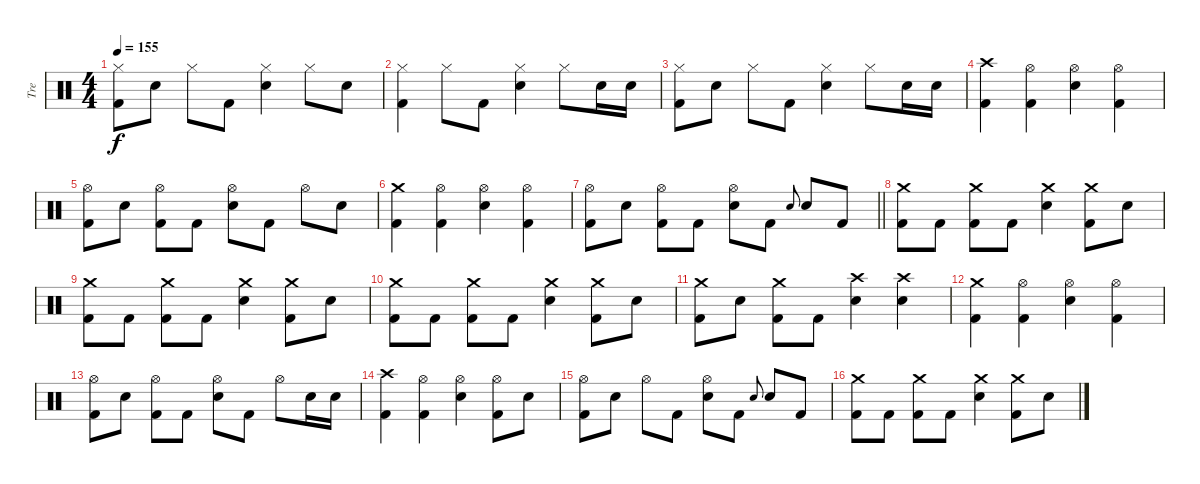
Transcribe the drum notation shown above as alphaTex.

\track ("Tre" "Tre") {instrument percussion}
\staff {score}
\articulation defaults
\ts (4 4)
\tempo 155
\clef neutral
\ks c
("Hi-Hat (closed)" "Kick (hit) 2").8{dy f} "Snare (hit) 2".8 "Hi-Hat (closed)".8 "Kick (hit) 2".8 ("Hi-Hat (closed)" "Snare (hit) 2").4 "Hi-Hat (closed)".8 "Snare (hit) 2".8 |
("Hi-Hat (closed)" "Kick (hit) 2").4 "Hi-Hat (closed)".8 "Kick (hit) 2".8 ("Hi-Hat (closed)" "Snare (hit) 2").4 "Hi-Hat (closed)".8 "Snare (hit) 2".16 "Snare (hit) 2".16 |
("Hi-Hat (closed)" "Kick (hit) 2").8 "Snare (hit) 2".8 "Hi-Hat (closed)".8 "Kick (hit) 2".8 ("Hi-Hat (closed)" "Snare (hit) 2").4 "Hi-Hat (closed)".8 "Snare (hit) 2".16 "Snare (hit) 2".16 |
("Crash high (hit)" "Kick (hit) 2").4 ("Hi-Hat (open)" "Kick (hit) 2").4 ("Hi-Hat (open)" "Snare (hit) 2").4 ("Hi-Hat (open)" "Kick (hit) 2").4 |
("Hi-Hat (open)" "Kick (hit) 2").8 "Snare (hit) 2".8 ("Hi-Hat (open)" "Kick (hit) 2").8 "Kick (hit) 2".8 ("Hi-Hat (open)" "Snare (hit) 2").8 "Kick (hit) 2".8 "Hi-Hat (open)".8 "Snare (hit) 2".8 |
("Crash medium (hit)" "Kick (hit) 2").4 ("Hi-Hat (open)" "Kick (hit) 2").4 ("Hi-Hat (open)" "Snare (hit) 2").4 ("Hi-Hat (open)" "Kick (hit) 2").4 |
\barLineRight lightlight
("Hi-Hat (open)" "Kick (hit) 2").8 "Snare (hit) 2".8 ("Hi-Hat (open)" "Kick (hit) 2").8 "Kick (hit) 2".8 ("Hi-Hat (open)" "Snare (hit) 2").8 "Kick (hit) 2".8 "Snare (hit) 2".8{gr onbeat} "Snare (hit) 2".8 "Kick (hit) 2".8 |
("Crash medium (hit)" "Kick (hit) 2").8 "Kick (hit) 2".8 ("Crash medium (hit)" "Kick (hit) 2").8 "Kick (hit) 2".8 ("Crash medium (hit)" "Snare (hit) 2").4 ("Crash medium (hit)" "Kick (hit) 2").8 "Snare (hit) 2".8 |
("Crash medium (hit)" "Kick (hit) 2").8 "Kick (hit) 2".8 ("Crash medium (hit)" "Kick (hit) 2").8 "Kick (hit) 2".8 ("Crash medium (hit)" "Snare (hit) 2").4 ("Crash medium (hit)" "Kick (hit) 2").8 "Snare (hit) 2".8 |
("Crash medium (hit)" "Kick (hit) 2").8 "Kick (hit) 2".8 ("Crash medium (hit)" "Kick (hit) 2").8 "Kick (hit) 2".8 ("Crash medium (hit)" "Snare (hit) 2").4 ("Crash medium (hit)" "Kick (hit) 2").8 "Snare (hit) 2".8 |
("Crash medium (hit)" "Kick (hit) 2").8 "Snare (hit) 2".8 ("Crash medium (hit)" "Kick (hit) 2").8 "Kick (hit) 2".8 ("Crash high (hit)" "Snare (hit) 2").4 ("Crash high (hit)" "Snare (hit) 2").4 |
("Crash medium (hit)" "Kick (hit) 2").4 ("Hi-Hat (open)" "Kick (hit) 2").4 ("Hi-Hat (open)" "Snare (hit) 2").4 ("Hi-Hat (open)" "Kick (hit) 2").4 |
("Hi-Hat (open)" "Kick (hit) 2").8 "Snare (hit) 2".8 ("Hi-Hat (open)" "Kick (hit) 2").8 "Kick (hit) 2".8 ("Hi-Hat (open)" "Snare (hit) 2").8 "Kick (hit) 2".8 "Hi-Hat (open)".8 "Snare (hit) 2".16 "Snare (hit) 2".16 |
("Crash high (hit)" "Kick (hit) 2").4 ("Hi-Hat (open)" "Kick (hit) 2").4 ("Hi-Hat (open)" "Snare (hit) 2").4 ("Hi-Hat (open)" "Kick (hit) 2").8 "Snare (hit) 2".8 |
("Hi-Hat (open)" "Kick (hit) 2").8 "Snare (hit) 2".8 "Hi-Hat (open)".8 "Kick (hit) 2".8 ("Hi-Hat (open)" "Snare (hit) 2").8 "Kick (hit) 2".8 "Snare (hit) 2".8{gr onbeat} "Snare (hit) 2".8 "Kick (hit) 2".8 |
("Crash medium (hit)" "Kick (hit) 2").8 "Kick (hit) 2".8 ("Crash medium (hit)" "Kick (hit) 2").8 "Kick (hit) 2".8 ("Crash medium (hit)" "Snare (hit) 2").4 ("Crash medium (hit)" "Kick (hit) 2").8 "Snare (hit) 2".8
